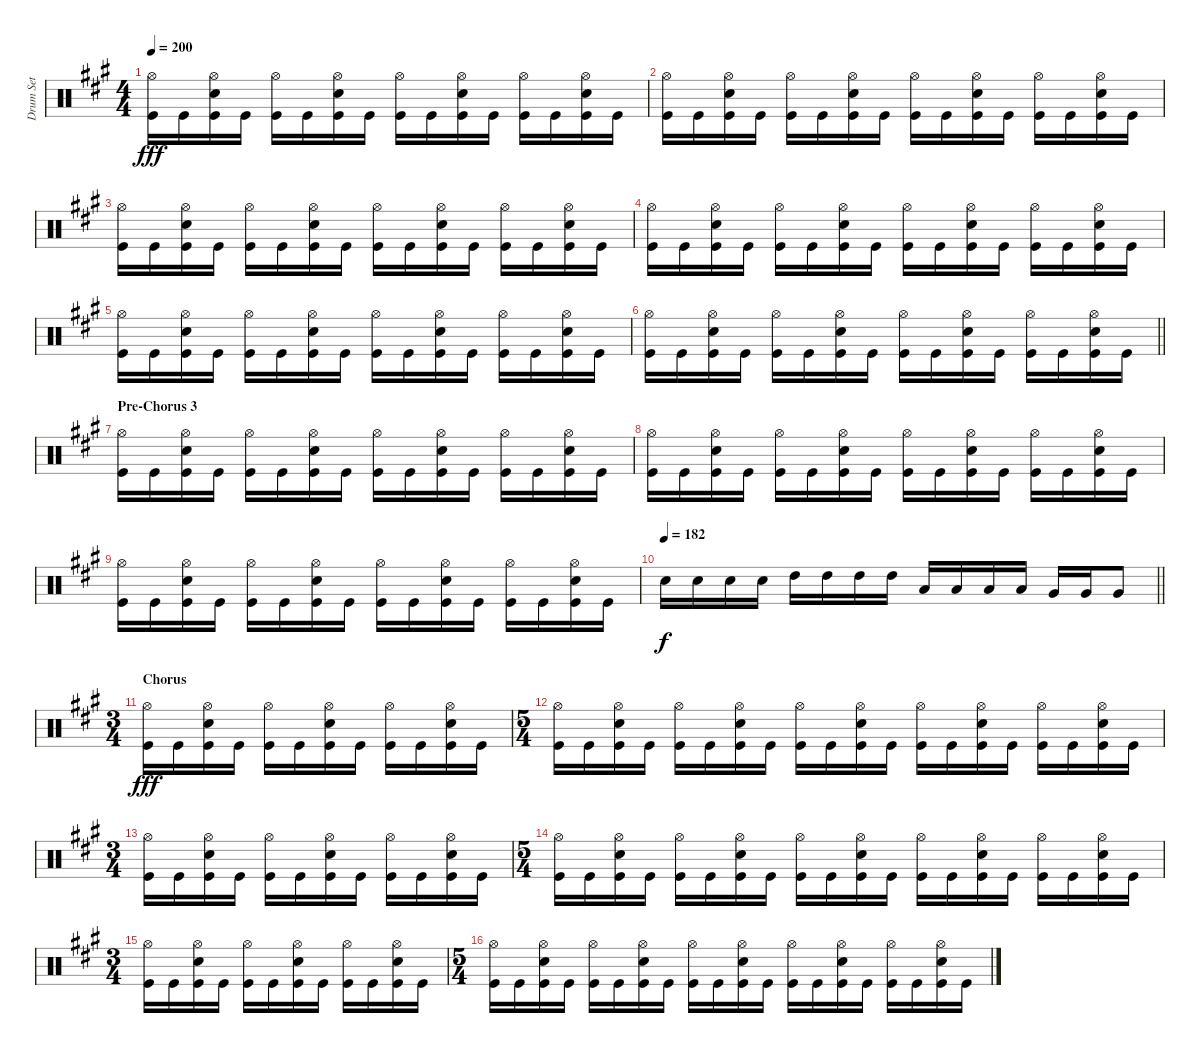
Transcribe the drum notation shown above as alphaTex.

\track ("Drum Set" "Drum Set") {instrument percussion}
\staff {score}
\articulation defaults
\ts (4 4)
\tempo 200
\clef neutral
\ks a
("Hi-Hat (open)" "Kick (hit)").16{dy fff} "Kick (hit)".16 ("Electric Snare (hit)" "Hi-Hat (open)" "Kick (hit)").16 "Kick (hit)".16 ("Hi-Hat (open)" "Kick (hit)").16 "Kick (hit)".16 ("Electric Snare (hit)" "Hi-Hat (open)" "Kick (hit)").16 "Kick (hit)".16 ("Hi-Hat (open)" "Kick (hit)").16 "Kick (hit)".16 ("Electric Snare (hit)" "Hi-Hat (open)" "Kick (hit)").16 "Kick (hit)".16 ("Hi-Hat (open)" "Kick (hit)").16 "Kick (hit)".16 ("Electric Snare (hit)" "Hi-Hat (open)" "Kick (hit)").16 "Kick (hit)".16 |
("Hi-Hat (open)" "Kick (hit)").16 "Kick (hit)".16 ("Electric Snare (hit)" "Hi-Hat (open)" "Kick (hit)").16 "Kick (hit)".16 ("Hi-Hat (open)" "Kick (hit)").16 "Kick (hit)".16 ("Electric Snare (hit)" "Hi-Hat (open)" "Kick (hit)").16 "Kick (hit)".16 ("Hi-Hat (open)" "Kick (hit)").16 "Kick (hit)".16 ("Electric Snare (hit)" "Hi-Hat (open)" "Kick (hit)").16 "Kick (hit)".16 ("Hi-Hat (open)" "Kick (hit)").16 "Kick (hit)".16 ("Electric Snare (hit)" "Hi-Hat (open)" "Kick (hit)").16 "Kick (hit)".16 |
("Hi-Hat (open)" "Kick (hit)").16 "Kick (hit)".16 ("Electric Snare (hit)" "Hi-Hat (open)" "Kick (hit)").16 "Kick (hit)".16 ("Hi-Hat (open)" "Kick (hit)").16 "Kick (hit)".16 ("Electric Snare (hit)" "Hi-Hat (open)" "Kick (hit)").16 "Kick (hit)".16 ("Hi-Hat (open)" "Kick (hit)").16 "Kick (hit)".16 ("Electric Snare (hit)" "Hi-Hat (open)" "Kick (hit)").16 "Kick (hit)".16 ("Hi-Hat (open)" "Kick (hit)").16 "Kick (hit)".16 ("Electric Snare (hit)" "Hi-Hat (open)" "Kick (hit)").16 "Kick (hit)".16 |
("Hi-Hat (open)" "Kick (hit)").16 "Kick (hit)".16 ("Electric Snare (hit)" "Hi-Hat (open)" "Kick (hit)").16 "Kick (hit)".16 ("Hi-Hat (open)" "Kick (hit)").16 "Kick (hit)".16 ("Electric Snare (hit)" "Hi-Hat (open)" "Kick (hit)").16 "Kick (hit)".16 ("Hi-Hat (open)" "Kick (hit)").16 "Kick (hit)".16 ("Electric Snare (hit)" "Hi-Hat (open)" "Kick (hit)").16 "Kick (hit)".16 ("Hi-Hat (open)" "Kick (hit)").16 "Kick (hit)".16 ("Electric Snare (hit)" "Hi-Hat (open)" "Kick (hit)").16 "Kick (hit)".16 |
("Hi-Hat (open)" "Kick (hit)").16 "Kick (hit)".16 ("Electric Snare (hit)" "Hi-Hat (open)" "Kick (hit)").16 "Kick (hit)".16 ("Hi-Hat (open)" "Kick (hit)").16 "Kick (hit)".16 ("Electric Snare (hit)" "Hi-Hat (open)" "Kick (hit)").16 "Kick (hit)".16 ("Hi-Hat (open)" "Kick (hit)").16 "Kick (hit)".16 ("Electric Snare (hit)" "Hi-Hat (open)" "Kick (hit)").16 "Kick (hit)".16 ("Hi-Hat (open)" "Kick (hit)").16 "Kick (hit)".16 ("Electric Snare (hit)" "Hi-Hat (open)" "Kick (hit)").16 "Kick (hit)".16 |
\barLineRight lightlight
("Hi-Hat (open)" "Kick (hit)").16 "Kick (hit)".16 ("Electric Snare (hit)" "Hi-Hat (open)" "Kick (hit)").16 "Kick (hit)".16 ("Hi-Hat (open)" "Kick (hit)").16 "Kick (hit)".16 ("Electric Snare (hit)" "Hi-Hat (open)" "Kick (hit)").16 "Kick (hit)".16 ("Hi-Hat (open)" "Kick (hit)").16 "Kick (hit)".16 ("Electric Snare (hit)" "Hi-Hat (open)" "Kick (hit)").16 "Kick (hit)".16 ("Hi-Hat (open)" "Kick (hit)").16 "Kick (hit)".16 ("Electric Snare (hit)" "Hi-Hat (open)" "Kick (hit)").16 "Kick (hit)".16 |
\section ("" "Pre-Chorus 3 ")
("Hi-Hat (open)" "Kick (hit)").16 "Kick (hit)".16 ("Electric Snare (hit)" "Hi-Hat (open)" "Kick (hit)").16 "Kick (hit)".16 ("Hi-Hat (open)" "Kick (hit)").16 "Kick (hit)".16 ("Electric Snare (hit)" "Hi-Hat (open)" "Kick (hit)").16 "Kick (hit)".16 ("Hi-Hat (open)" "Kick (hit)").16 "Kick (hit)".16 ("Electric Snare (hit)" "Hi-Hat (open)" "Kick (hit)").16 "Kick (hit)".16 ("Hi-Hat (open)" "Kick (hit)").16 "Kick (hit)".16 ("Electric Snare (hit)" "Hi-Hat (open)" "Kick (hit)").16 "Kick (hit)".16 |
("Hi-Hat (open)" "Kick (hit)").16 "Kick (hit)".16 ("Electric Snare (hit)" "Hi-Hat (open)" "Kick (hit)").16 "Kick (hit)".16 ("Hi-Hat (open)" "Kick (hit)").16 "Kick (hit)".16 ("Electric Snare (hit)" "Hi-Hat (open)" "Kick (hit)").16 "Kick (hit)".16 ("Hi-Hat (open)" "Kick (hit)").16 "Kick (hit)".16 ("Electric Snare (hit)" "Hi-Hat (open)" "Kick (hit)").16 "Kick (hit)".16 ("Hi-Hat (open)" "Kick (hit)").16 "Kick (hit)".16 ("Electric Snare (hit)" "Hi-Hat (open)" "Kick (hit)").16 "Kick (hit)".16 |
("Hi-Hat (open)" "Kick (hit)").16 "Kick (hit)".16 ("Electric Snare (hit)" "Hi-Hat (open)" "Kick (hit)").16 "Kick (hit)".16 ("Hi-Hat (open)" "Kick (hit)").16 "Kick (hit)".16 ("Electric Snare (hit)" "Hi-Hat (open)" "Kick (hit)").16 "Kick (hit)".16 ("Hi-Hat (open)" "Kick (hit)").16 "Kick (hit)".16 ("Electric Snare (hit)" "Hi-Hat (open)" "Kick (hit)").16 "Kick (hit)".16 ("Hi-Hat (open)" "Kick (hit)").16 "Kick (hit)".16 ("Electric Snare (hit)" "Hi-Hat (open)" "Kick (hit)").16 "Kick (hit)".16 |
\tempo 182
\barLineRight lightlight "Electric Snare (hit)".16{dy f} "Electric Snare (hit)".16 "Electric Snare (hit)".16 "Electric Snare (hit)".16 "High Tom (hit)".16 "High Tom (hit)".16 "High Tom (hit)".16 "High Tom (hit)".16 "Low Tom (hit)".16 "Low Tom (hit)".16 "Low Tom (hit)".16 "Low Tom (hit)".16 "Very Low Tom (hit)".16 "Very Low Tom (hit)".16 "Very Low Tom (hit)".8
|
\ts (3 4)
\section ("" "Chorus ")
("Hi-Hat (open)" "Kick (hit)").16{dy fff} "Kick (hit)".16 ("Electric Snare (hit)" "Hi-Hat (open)" "Kick (hit)").16 "Kick (hit)".16 ("Hi-Hat (open)" "Kick (hit)").16 "Kick (hit)".16 ("Electric Snare (hit)" "Hi-Hat (open)" "Kick (hit)").16 "Kick (hit)".16 ("Hi-Hat (open)" "Kick (hit)").16 "Kick (hit)".16 ("Electric Snare (hit)" "Hi-Hat (open)" "Kick (hit)").16 "Kick (hit)".16 |
\ts (5 4)
("Hi-Hat (open)" "Kick (hit)").16 "Kick (hit)".16 ("Electric Snare (hit)" "Hi-Hat (open)" "Kick (hit)").16 "Kick (hit)".16 ("Hi-Hat (open)" "Kick (hit)").16 "Kick (hit)".16 ("Electric Snare (hit)" "Hi-Hat (open)" "Kick (hit)").16 "Kick (hit)".16 ("Hi-Hat (open)" "Kick (hit)").16 "Kick (hit)".16 ("Electric Snare (hit)" "Hi-Hat (open)" "Kick (hit)").16 "Kick (hit)".16 ("Hi-Hat (open)" "Kick (hit)").16 "Kick (hit)".16 ("Electric Snare (hit)" "Hi-Hat (open)" "Kick (hit)").16 "Kick (hit)".16 ("Hi-Hat (open)" "Kick (hit)").16 "Kick (hit)".16 ("Electric Snare (hit)" "Hi-Hat (open)" "Kick (hit)").16 "Kick (hit)".16 |
\ts (3 4)
("Hi-Hat (open)" "Kick (hit)").16 "Kick (hit)".16 ("Electric Snare (hit)" "Hi-Hat (open)" "Kick (hit)").16 "Kick (hit)".16 ("Hi-Hat (open)" "Kick (hit)").16 "Kick (hit)".16 ("Electric Snare (hit)" "Hi-Hat (open)" "Kick (hit)").16 "Kick (hit)".16 ("Hi-Hat (open)" "Kick (hit)").16 "Kick (hit)".16 ("Electric Snare (hit)" "Hi-Hat (open)" "Kick (hit)").16 "Kick (hit)".16 |
\ts (5 4)
("Hi-Hat (open)" "Kick (hit)").16 "Kick (hit)".16 ("Electric Snare (hit)" "Hi-Hat (open)" "Kick (hit)").16 "Kick (hit)".16 ("Hi-Hat (open)" "Kick (hit)").16 "Kick (hit)".16 ("Electric Snare (hit)" "Hi-Hat (open)" "Kick (hit)").16 "Kick (hit)".16 ("Hi-Hat (open)" "Kick (hit)").16 "Kick (hit)".16 ("Electric Snare (hit)" "Hi-Hat (open)" "Kick (hit)").16 "Kick (hit)".16 ("Hi-Hat (open)" "Kick (hit)").16 "Kick (hit)".16 ("Electric Snare (hit)" "Hi-Hat (open)" "Kick (hit)").16 "Kick (hit)".16 ("Hi-Hat (open)" "Kick (hit)").16 "Kick (hit)".16 ("Electric Snare (hit)" "Hi-Hat (open)" "Kick (hit)").16 "Kick (hit)".16 |
\ts (3 4)
("Hi-Hat (open)" "Kick (hit)").16 "Kick (hit)".16 ("Electric Snare (hit)" "Hi-Hat (open)" "Kick (hit)").16 "Kick (hit)".16 ("Hi-Hat (open)" "Kick (hit)").16 "Kick (hit)".16 ("Electric Snare (hit)" "Hi-Hat (open)" "Kick (hit)").16 "Kick (hit)".16 ("Hi-Hat (open)" "Kick (hit)").16 "Kick (hit)".16 ("Electric Snare (hit)" "Hi-Hat (open)" "Kick (hit)").16 "Kick (hit)".16 |
\ts (5 4)
("Hi-Hat (open)" "Kick (hit)").16 "Kick (hit)".16 ("Electric Snare (hit)" "Hi-Hat (open)" "Kick (hit)").16 "Kick (hit)".16 ("Hi-Hat (open)" "Kick (hit)").16 "Kick (hit)".16 ("Electric Snare (hit)" "Hi-Hat (open)" "Kick (hit)").16 "Kick (hit)".16 ("Hi-Hat (open)" "Kick (hit)").16 "Kick (hit)".16 ("Electric Snare (hit)" "Hi-Hat (open)" "Kick (hit)").16 "Kick (hit)".16 ("Hi-Hat (open)" "Kick (hit)").16 "Kick (hit)".16 ("Electric Snare (hit)" "Hi-Hat (open)" "Kick (hit)").16 "Kick (hit)".16 ("Hi-Hat (open)" "Kick (hit)").16 "Kick (hit)".16 ("Electric Snare (hit)" "Hi-Hat (open)" "Kick (hit)").16 "Kick (hit)".16
